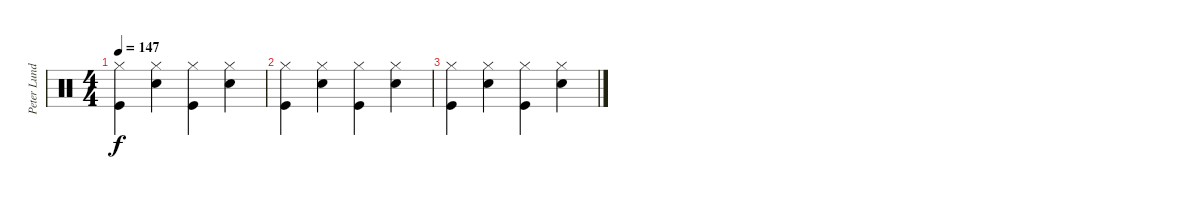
\track ("Peter Lundholm Jensen" "Peter Lund") {instrument percussion}
\staff {score}
\articulation defaults
\ts (4 4)
\tempo 147
\clef neutral
\ks c
("Kick (hit)" "Hi-Hat (closed)").4{dy f} ("Snare (hit) 2" "Hi-Hat (closed)").4 ("Kick (hit)" "Hi-Hat (closed)").4 ("Snare (hit) 2" "Hi-Hat (closed)").4 |
("Kick (hit)" "Hi-Hat (closed)").4 ("Snare (hit) 2" "Hi-Hat (closed)").4 ("Kick (hit)" "Hi-Hat (closed)").4 ("Snare (hit) 2" "Hi-Hat (closed)").4 |
("Kick (hit)" "Hi-Hat (closed)").4 ("Snare (hit) 2" "Hi-Hat (closed)").4 ("Kick (hit)" "Hi-Hat (closed)").4 ("Snare (hit) 2" "Hi-Hat (closed)").4
